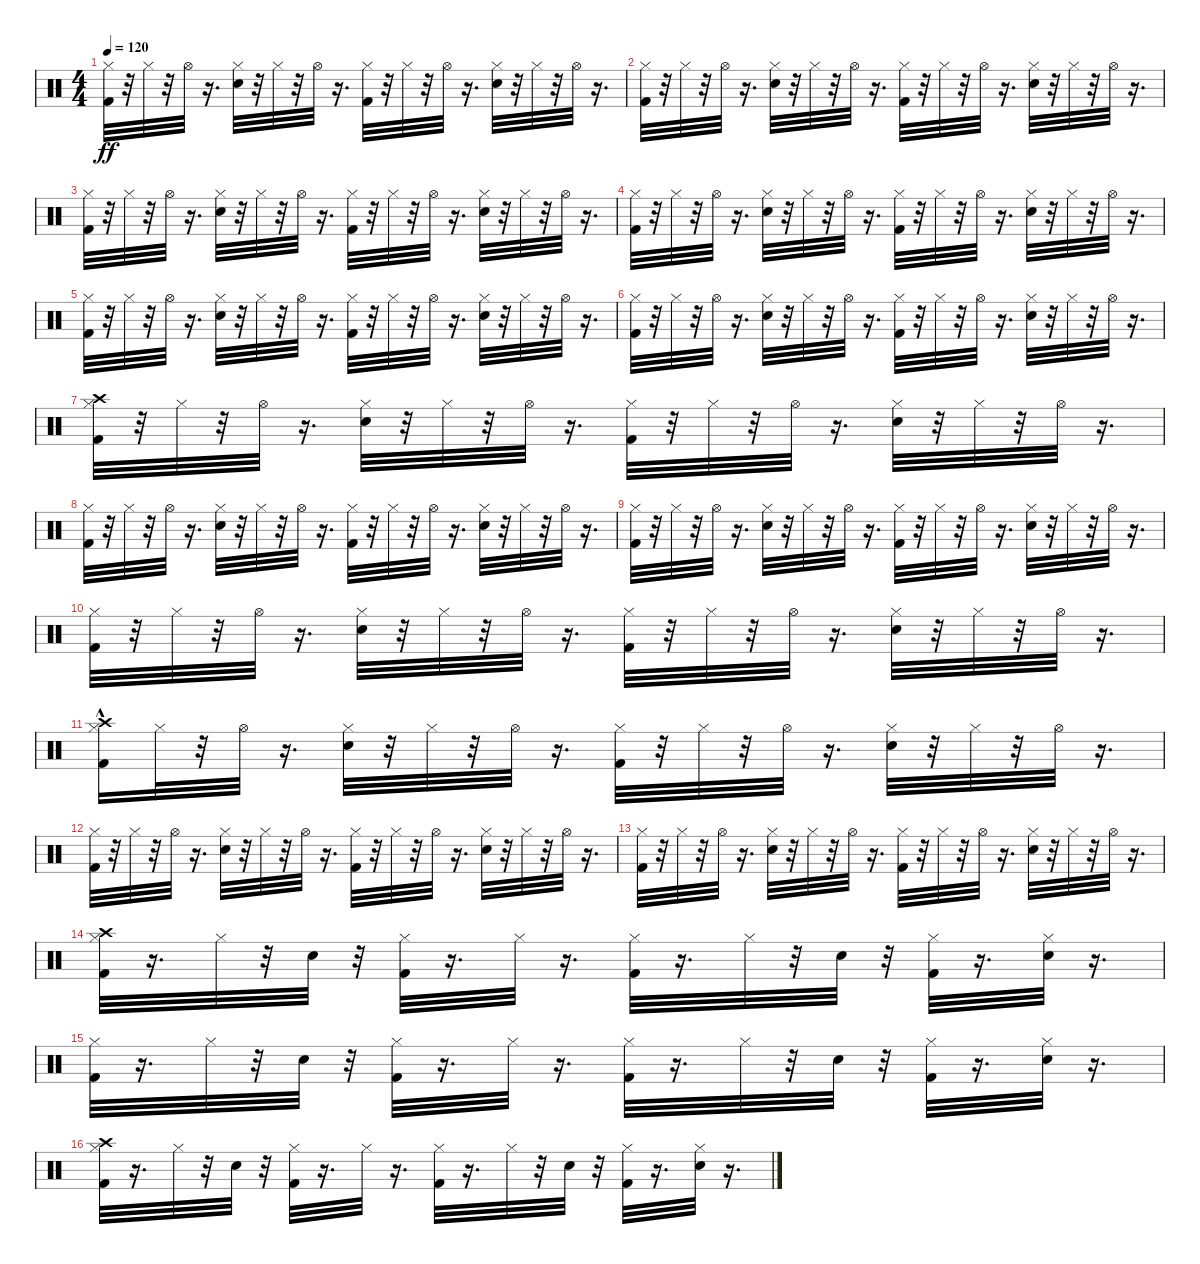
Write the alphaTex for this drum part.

\track "" {instrument percussion}
\staff {score}
\articulation defaults
\ts (4 4)
\tempo 120
\clef neutral
\ks c
("Kick (hit) 2" "Hi-Hat (closed)").32{dy ff} r.32 "Hi-Hat (closed)".32 r.32 "Hi-Hat (open)".32 r.16{d} ("Snare (hit) 2" "Hi-Hat (closed)").32 r.32 "Hi-Hat (closed)".32 r.32 "Hi-Hat (open)".32 r.16{d} ("Kick (hit) 2" "Hi-Hat (closed)").32 r.32 "Hi-Hat (closed)".32 r.32 "Hi-Hat (open)".32 r.16{d} ("Snare (hit) 2" "Hi-Hat (closed)").32 r.32 "Hi-Hat (closed)".32 r.32 "Hi-Hat (open)".32 r.16{d} |
("Kick (hit) 2" "Hi-Hat (closed)").32 r.32 "Hi-Hat (closed)".32 r.32 "Hi-Hat (open)".32 r.16{d} ("Snare (hit) 2" "Hi-Hat (closed)").32 r.32 "Hi-Hat (closed)".32 r.32 "Hi-Hat (open)".32 r.16{d} ("Kick (hit) 2" "Hi-Hat (closed)").32 r.32 "Hi-Hat (closed)".32 r.32 "Hi-Hat (open)".32 r.16{d} ("Snare (hit) 2" "Hi-Hat (closed)").32 r.32 "Hi-Hat (closed)".32 r.32 "Hi-Hat (open)".32 r.16{d} |
("Kick (hit) 2" "Hi-Hat (closed)").32 r.32 "Hi-Hat (closed)".32 r.32 "Hi-Hat (open)".32 r.16{d} ("Snare (hit) 2" "Hi-Hat (closed)").32 r.32 "Hi-Hat (closed)".32 r.32 "Hi-Hat (open)".32 r.16{d} ("Kick (hit) 2" "Hi-Hat (closed)").32 r.32 "Hi-Hat (closed)".32 r.32 "Hi-Hat (open)".32 r.16{d} ("Snare (hit) 2" "Hi-Hat (closed)").32 r.32 "Hi-Hat (closed)".32 r.32 "Hi-Hat (open)".32 r.16{d} |
("Kick (hit) 2" "Hi-Hat (closed)").32 r.32 "Hi-Hat (closed)".32 r.32 "Hi-Hat (open)".32 r.16{d} ("Snare (hit) 2" "Hi-Hat (closed)").32 r.32 "Hi-Hat (closed)".32 r.32 "Hi-Hat (open)".32 r.16{d} ("Kick (hit) 2" "Hi-Hat (closed)").32 r.32 "Hi-Hat (closed)".32 r.32 "Hi-Hat (open)".32 r.16{d} ("Snare (hit) 2" "Hi-Hat (closed)").32 r.32 "Hi-Hat (closed)".32 r.32 "Hi-Hat (open)".32 r.16{d} |
("Kick (hit) 2" "Hi-Hat (closed)").32 r.32 "Hi-Hat (closed)".32 r.32 "Hi-Hat (open)".32 r.16{d} ("Snare (hit) 2" "Hi-Hat (closed)").32 r.32 "Hi-Hat (closed)".32 r.32 "Hi-Hat (open)".32 r.16{d} ("Kick (hit) 2" "Hi-Hat (closed)").32 r.32 "Hi-Hat (closed)".32 r.32 "Hi-Hat (open)".32 r.16{d} ("Snare (hit) 2" "Hi-Hat (closed)").32 r.32 "Hi-Hat (closed)".32 r.32 "Hi-Hat (open)".32 r.16{d} |
("Kick (hit) 2" "Hi-Hat (closed)").32 r.32 "Hi-Hat (closed)".32 r.32 "Hi-Hat (open)".32 r.16{d} ("Snare (hit) 2" "Hi-Hat (closed)").32 r.32 "Hi-Hat (closed)".32 r.32 "Hi-Hat (open)".32 r.16{d} ("Kick (hit) 2" "Hi-Hat (closed)").32 r.32 "Hi-Hat (closed)".32 r.32 "Hi-Hat (open)".32 r.16{d} ("Snare (hit) 2" "Hi-Hat (closed)").32 r.32 "Hi-Hat (closed)".32 r.32 "Hi-Hat (open)".32 r.16{d} |
("Kick (hit) 2" "Hi-Hat (closed)" "Crash high (hit)").32 r.32 "Hi-Hat (closed)".32 r.32 "Hi-Hat (open)".32 r.16{d} ("Snare (hit) 2" "Hi-Hat (closed)").32 r.32 "Hi-Hat (closed)".32 r.32 "Hi-Hat (open)".32 r.16{d} ("Kick (hit) 2" "Hi-Hat (closed)").32 r.32 "Hi-Hat (closed)".32 r.32 "Hi-Hat (open)".32 r.16{d} ("Snare (hit) 2" "Hi-Hat (closed)").32 r.32 "Hi-Hat (closed)".32 r.32 "Hi-Hat (open)".32 r.16{d} |
("Kick (hit) 2" "Hi-Hat (closed)").32 r.32 "Hi-Hat (closed)".32 r.32 "Hi-Hat (open)".32 r.16{d} ("Snare (hit) 2" "Hi-Hat (closed)").32 r.32 "Hi-Hat (closed)".32 r.32 "Hi-Hat (open)".32 r.16{d} ("Kick (hit) 2" "Hi-Hat (closed)").32 r.32 "Hi-Hat (closed)".32 r.32 "Hi-Hat (open)".32 r.16{d} ("Snare (hit) 2" "Hi-Hat (closed)").32 r.32 "Hi-Hat (closed)".32 r.32 "Hi-Hat (open)".32 r.16{d} |
("Kick (hit) 2" "Hi-Hat (closed)").32 r.32 "Hi-Hat (closed)".32 r.32 "Hi-Hat (open)".32 r.16{d} ("Snare (hit) 2" "Hi-Hat (closed)").32 r.32 "Hi-Hat (closed)".32 r.32 "Hi-Hat (open)".32 r.16{d} ("Kick (hit) 2" "Hi-Hat (closed)").32 r.32 "Hi-Hat (closed)".32 r.32 "Hi-Hat (open)".32 r.16{d} ("Snare (hit) 2" "Hi-Hat (closed)").32 r.32 "Hi-Hat (closed)".32 r.32 "Hi-Hat (open)".32 r.16{d} |
("Kick (hit) 2" "Hi-Hat (closed)").32 r.32 "Hi-Hat (closed)".32 r.32 "Hi-Hat (open)".32 r.16{d} ("Snare (hit) 2" "Hi-Hat (closed)").32 r.32 "Hi-Hat (closed)".32 r.32 "Hi-Hat (open)".32 r.16{d} ("Kick (hit) 2" "Hi-Hat (closed)").32 r.32 "Hi-Hat (closed)".32 r.32 "Hi-Hat (open)".32 r.16{d} ("Snare (hit) 2" "Hi-Hat (closed)").32 r.32 "Hi-Hat (closed)".32 r.32 "Hi-Hat (open)".32 r.16{d} |
("Kick (hit) 2" "Hi-Hat (closed)" "Crash high (hit)"{hac}).16 "Hi-Hat (closed)".32 r.32 "Hi-Hat (open)".32 r.16{d} ("Snare (hit) 2" "Hi-Hat (closed)").32 r.32 "Hi-Hat (closed)".32 r.32 "Hi-Hat (open)".32 r.16{d} ("Kick (hit) 2" "Hi-Hat (closed)").32 r.32 "Hi-Hat (closed)".32 r.32 "Hi-Hat (open)".32 r.16{d} ("Snare (hit) 2" "Hi-Hat (closed)").32 r.32 "Hi-Hat (closed)".32 r.32 "Hi-Hat (open)".32 r.16{d} |
("Kick (hit) 2" "Hi-Hat (closed)").32 r.32 "Hi-Hat (closed)".32 r.32 "Hi-Hat (open)".32 r.16{d} ("Snare (hit) 2" "Hi-Hat (closed)").32 r.32 "Hi-Hat (closed)".32 r.32 "Hi-Hat (open)".32 r.16{d} ("Kick (hit) 2" "Hi-Hat (closed)").32 r.32 "Hi-Hat (closed)".32 r.32 "Hi-Hat (open)".32 r.16{d} ("Snare (hit) 2" "Hi-Hat (closed)").32 r.32 "Hi-Hat (closed)".32 r.32 "Hi-Hat (open)".32 r.16{d} |
("Kick (hit) 2" "Hi-Hat (closed)").32 r.32 "Hi-Hat (closed)".32 r.32 "Hi-Hat (open)".32 r.16{d} ("Snare (hit) 2" "Hi-Hat (closed)").32 r.32 "Hi-Hat (closed)".32 r.32 "Hi-Hat (open)".32 r.16{d} ("Kick (hit) 2" "Hi-Hat (closed)").32 r.32 "Hi-Hat (closed)".32 r.32 "Hi-Hat (open)".32 r.16{d} ("Snare (hit) 2" "Hi-Hat (closed)").32 r.32 "Hi-Hat (closed)".32 r.32 "Hi-Hat (open)".32 r.16{d} |
("Kick (hit) 2" "Hi-Hat (closed)" "Crash high (hit)").32 r.16{d} "Hi-Hat (closed)".32 r.32 "Snare (hit) 2".32 r.32 ("Kick (hit) 2" "Hi-Hat (closed)").32 r.16{d} "Hi-Hat (closed)".32 r.16{d} ("Kick (hit) 2" "Hi-Hat (closed)").32 r.16{d} "Hi-Hat (closed)".32 r.32 "Snare (hit) 2".32 r.32 ("Kick (hit) 2" "Hi-Hat (closed)").32 r.16{d} ("Snare (hit) 2" "Hi-Hat (closed)").32 r.16{d} |
("Kick (hit) 2" "Hi-Hat (closed)").32 r.16{d} "Hi-Hat (closed)".32 r.32 "Snare (hit) 2".32 r.32 ("Kick (hit) 2" "Hi-Hat (closed)").32 r.16{d} "Hi-Hat (closed)".32 r.16{d} ("Kick (hit) 2" "Hi-Hat (closed)").32 r.16{d} "Hi-Hat (closed)".32 r.32 "Snare (hit) 2".32 r.32 ("Kick (hit) 2" "Hi-Hat (closed)").32 r.16{d} ("Snare (hit) 2" "Hi-Hat (closed)").32 r.16{d} |
("Kick (hit) 2" "Hi-Hat (closed)" "Crash high (hit)").32 r.16{d} "Hi-Hat (closed)".32 r.32 "Snare (hit) 2".32 r.32 ("Kick (hit) 2" "Hi-Hat (closed)").32 r.16{d} "Hi-Hat (closed)".32 r.16{d} ("Kick (hit) 2" "Hi-Hat (closed)").32 r.16{d} "Hi-Hat (closed)".32 r.32 "Snare (hit) 2".32 r.32 ("Kick (hit) 2" "Hi-Hat (closed)").32 r.16{d} ("Snare (hit) 2" "Hi-Hat (closed)").32 r.16{d}
